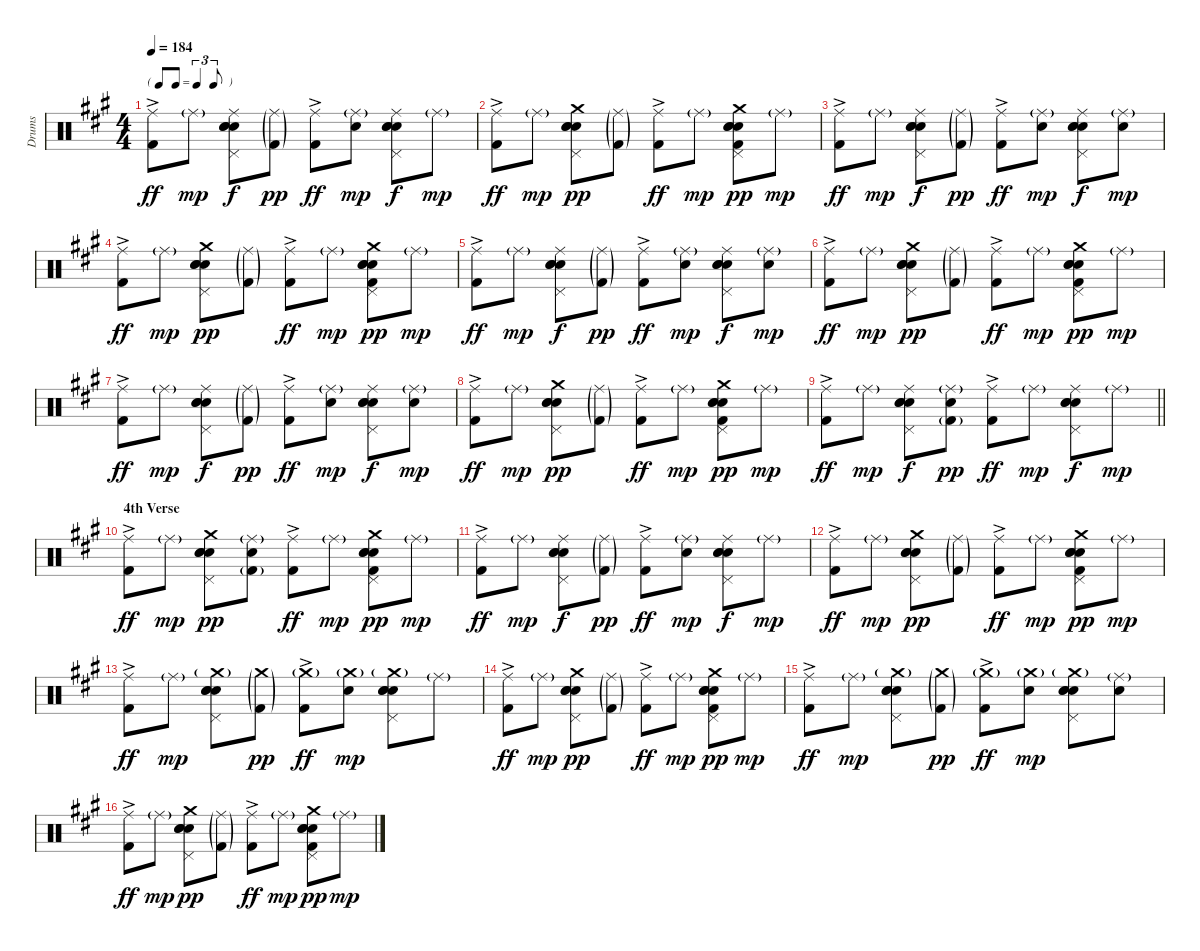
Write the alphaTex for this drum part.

\track ("Drums" "Drums") {instrument percussion}
\staff {score}
\articulation defaults
\ts (4 4)
\tf triplet8th
\tempo 184
\clef neutral
\ks a
("Ride (middle)" "Kick (hit) 2"{ac}).8{dy ff} "Ride (middle)"{g}.8{dy mp} ("Ride (middle)" "Pedal Hi-Hat (hit)" "Hand Clap (hit)" "Electric Snare (hit)" "Snare (hit) 2").8{dy f} ("Ride (middle)"{g} "Kick (hit) 2"{g}).8{dy pp} ("Ride (middle)" "Kick (hit) 2"{ac}).8{dy ff} ("Ride (middle)"{g} "Snare (hit) 2").8{dy mp} ("Ride (middle)" "Pedal Hi-Hat (hit)" "Hand Clap (hit)" "Electric Snare (hit)" "Snare (hit) 2").8{dy f} "Ride (middle)"{g}.8{dy mp} |
("Ride (middle)" "Kick (hit) 2"{ac}).8{dy ff} "Ride (middle)"{g}.8{dy mp} ("Hand Clap (hit)" "Pedal Hi-Hat (hit)" "Crash medium (hit)" "Electric Snare (hit)" "Snare (hit) 2").8{dy pp} ("Ride (middle)"{g} "Kick (hit) 2"{g}).8 ("Ride (middle)" "Kick (hit) 2"{ac}).8{dy ff} "Ride (middle)"{g}.8{dy mp} ("Hand Clap (hit)" "Pedal Hi-Hat (hit)" "Crash medium (hit)" "Electric Snare (hit)" "Snare (hit) 2" "Kick (hit) 2").8{dy pp} "Ride (middle)"{g}.8{dy mp} |
("Ride (middle)" "Kick (hit) 2"{ac}).8{dy ff} "Ride (middle)"{g}.8{dy mp} ("Ride (middle)" "Pedal Hi-Hat (hit)" "Hand Clap (hit)" "Electric Snare (hit)" "Snare (hit) 2").8{dy f} ("Ride (middle)"{g} "Kick (hit) 2"{g}).8{dy pp} ("Ride (middle)" "Kick (hit) 2"{ac}).8{dy ff} ("Ride (middle)"{g} "Snare (hit) 2").8{dy mp} ("Ride (middle)" "Pedal Hi-Hat (hit)" "Hand Clap (hit)" "Electric Snare (hit)" "Snare (hit) 2").8{dy f} ("Ride (middle)"{g} "Snare (hit) 2").8{dy mp} |
("Ride (middle)" "Kick (hit) 2"{ac}).8{dy ff} "Ride (middle)"{g}.8{dy mp} ("Hand Clap (hit)" "Pedal Hi-Hat (hit)" "Crash medium (hit)" "Electric Snare (hit)" "Snare (hit) 2").8{dy pp} ("Ride (middle)"{g} "Kick (hit) 2"{g}).8 ("Ride (middle)" "Kick (hit) 2"{ac}).8{dy ff} "Ride (middle)"{g}.8{dy mp} ("Hand Clap (hit)" "Pedal Hi-Hat (hit)" "Crash medium (hit)" "Electric Snare (hit)" "Snare (hit) 2" "Kick (hit) 2").8{dy pp} "Ride (middle)"{g}.8{dy mp} |
("Ride (middle)" "Kick (hit) 2"{ac}).8{dy ff} "Ride (middle)"{g}.8{dy mp} ("Ride (middle)" "Pedal Hi-Hat (hit)" "Hand Clap (hit)" "Electric Snare (hit)" "Snare (hit) 2").8{dy f} ("Ride (middle)"{g} "Kick (hit) 2"{g}).8{dy pp} ("Ride (middle)" "Kick (hit) 2"{ac}).8{dy ff} ("Ride (middle)"{g} "Snare (hit) 2").8{dy mp} ("Ride (middle)" "Pedal Hi-Hat (hit)" "Hand Clap (hit)" "Electric Snare (hit)" "Snare (hit) 2").8{dy f} ("Ride (middle)"{g} "Snare (hit) 2").8{dy mp} |
("Ride (middle)" "Kick (hit) 2"{ac}).8{dy ff} "Ride (middle)"{g}.8{dy mp} ("Hand Clap (hit)" "Pedal Hi-Hat (hit)" "Crash medium (hit)" "Electric Snare (hit)" "Snare (hit) 2").8{dy pp} ("Ride (middle)"{g} "Kick (hit) 2"{g}).8 ("Ride (middle)" "Kick (hit) 2"{ac}).8{dy ff} "Ride (middle)"{g}.8{dy mp} ("Hand Clap (hit)" "Pedal Hi-Hat (hit)" "Crash medium (hit)" "Electric Snare (hit)" "Snare (hit) 2" "Kick (hit) 2").8{dy pp} "Ride (middle)"{g}.8{dy mp} |
("Ride (middle)" "Kick (hit) 2"{ac}).8{dy ff} "Ride (middle)"{g}.8{dy mp} ("Ride (middle)" "Pedal Hi-Hat (hit)" "Hand Clap (hit)" "Electric Snare (hit)" "Snare (hit) 2").8{dy f} ("Ride (middle)"{g} "Kick (hit) 2"{g}).8{dy pp} ("Ride (middle)" "Kick (hit) 2"{ac}).8{dy ff} ("Ride (middle)"{g} "Snare (hit) 2").8{dy mp} ("Ride (middle)" "Pedal Hi-Hat (hit)" "Hand Clap (hit)" "Electric Snare (hit)" "Snare (hit) 2").8{dy f} ("Ride (middle)"{g} "Snare (hit) 2").8{dy mp} |
("Ride (middle)" "Kick (hit) 2"{ac}).8{dy ff} "Ride (middle)"{g}.8{dy mp} ("Hand Clap (hit)" "Pedal Hi-Hat (hit)" "Crash medium (hit)" "Electric Snare (hit)" "Snare (hit) 2").8{dy pp} ("Ride (middle)"{g} "Kick (hit) 2"{g}).8 ("Ride (middle)" "Kick (hit) 2"{ac}).8{dy ff} "Ride (middle)"{g}.8{dy mp} ("Hand Clap (hit)" "Pedal Hi-Hat (hit)" "Crash medium (hit)" "Electric Snare (hit)" "Snare (hit) 2" "Kick (hit) 2").8{dy pp} "Ride (middle)"{g}.8{dy mp} |
\barLineRight lightlight
("Ride (middle)" "Kick (hit) 2"{ac}).8{dy ff} "Ride (middle)"{g}.8{dy mp} ("Ride (middle)" "Pedal Hi-Hat (hit)" "Hand Clap (hit)" "Electric Snare (hit)" "Snare (hit) 2").8{dy f} ("Ride (middle)"{g} "Snare (hit) 2" "Kick (hit) 2"{g}).8{dy pp} ("Ride (middle)" "Kick (hit) 2"{ac}).8{dy ff} "Ride (middle)"{g}.8{dy mp} ("Ride (middle)" "Pedal Hi-Hat (hit)" "Hand Clap (hit)" "Electric Snare (hit)" "Snare (hit) 2").8{dy f} "Ride (middle)"{g}.8{dy mp} |
\section ("" "4th Verse")
("Ride (middle)" "Kick (hit) 2"{ac}).8{dy ff} "Ride (middle)"{g}.8{dy mp} ("Hand Clap (hit)" "Pedal Hi-Hat (hit)" "Crash medium (hit)" "Electric Snare (hit)" "Snare (hit) 2").8{dy pp} ("Ride (middle)"{g} "Snare (hit) 2" "Kick (hit) 2"{g}).8 ("Ride (middle)" "Kick (hit) 2"{ac}).8{dy ff} "Ride (middle)"{g}.8{dy mp} ("Hand Clap (hit)" "Pedal Hi-Hat (hit)" "Crash medium (hit)" "Electric Snare (hit)" "Snare (hit) 2" "Kick (hit) 2").8{dy pp} "Ride (middle)"{g}.8{dy mp} |
("Ride (middle)" "Kick (hit) 2"{ac}).8{dy ff} "Ride (middle)"{g}.8{dy mp} ("Ride (middle)" "Pedal Hi-Hat (hit)" "Hand Clap (hit)" "Electric Snare (hit)" "Snare (hit) 2").8{dy f} ("Ride (middle)"{g} "Kick (hit) 2"{g}).8{dy pp} ("Ride (middle)" "Kick (hit) 2"{ac}).8{dy ff} ("Ride (middle)"{g} "Snare (hit) 2").8{dy mp} ("Ride (middle)" "Pedal Hi-Hat (hit)" "Hand Clap (hit)" "Electric Snare (hit)" "Snare (hit) 2").8{dy f} "Ride (middle)"{g}.8{dy mp} |
("Ride (middle)" "Kick (hit) 2"{ac}).8{dy ff} "Ride (middle)"{g}.8{dy mp} ("Hand Clap (hit)" "Pedal Hi-Hat (hit)" "Crash medium (hit)" "Electric Snare (hit)" "Snare (hit) 2").8{dy pp} ("Ride (middle)"{g} "Kick (hit) 2"{g}).8 ("Ride (middle)" "Kick (hit) 2"{ac}).8{dy ff} "Ride (middle)"{g}.8{dy mp} ("Hand Clap (hit)" "Pedal Hi-Hat (hit)" "Crash medium (hit)" "Electric Snare (hit)" "Snare (hit) 2" "Kick (hit) 2").8{dy pp} "Ride (middle)"{g}.8{dy mp} |
("Ride (middle)" "Kick (hit) 2"{ac}).8{dy ff} "Ride (middle)"{g}.8{dy mp} ("Crash medium (hit)"{g} "Pedal Hi-Hat (hit)" "Hand Clap (hit)" "Electric Snare (hit)" "Snare (hit) 2").8 ("Crash medium (hit)"{g} "Kick (hit) 2"{g}).8{dy pp} ("Crash medium (hit)"{g} "Kick (hit) 2"{ac}).8{dy ff} ("Crash medium (hit)"{g} "Snare (hit) 2").8{dy mp} ("Crash medium (hit)"{g} "Pedal Hi-Hat (hit)" "Hand Clap (hit)" "Electric Snare (hit)" "Snare (hit) 2").8 "Ride (middle)"{g}.8 |
("Ride (middle)" "Kick (hit) 2"{ac}).8{dy ff} "Ride (middle)"{g}.8{dy mp} ("Hand Clap (hit)" "Pedal Hi-Hat (hit)" "Crash medium (hit)" "Electric Snare (hit)" "Snare (hit) 2").8{dy pp} ("Ride (middle)"{g} "Kick (hit) 2"{g}).8 ("Ride (middle)" "Kick (hit) 2"{ac}).8{dy ff} "Ride (middle)"{g}.8{dy mp} ("Hand Clap (hit)" "Pedal Hi-Hat (hit)" "Crash medium (hit)" "Electric Snare (hit)" "Snare (hit) 2" "Kick (hit) 2").8{dy pp} "Ride (middle)"{g}.8{dy mp} |
("Ride (middle)" "Kick (hit) 2"{ac}).8{dy ff} "Ride (middle)"{g}.8{dy mp} ("Crash medium (hit)"{g} "Pedal Hi-Hat (hit)" "Hand Clap (hit)" "Electric Snare (hit)" "Snare (hit) 2").8 ("Crash medium (hit)"{g} "Kick (hit) 2"{g}).8{dy pp} ("Crash medium (hit)"{g} "Kick (hit) 2"{ac}).8{dy ff} ("Crash medium (hit)"{g} "Snare (hit) 2").8{dy mp} ("Crash medium (hit)"{g} "Pedal Hi-Hat (hit)" "Hand Clap (hit)" "Electric Snare (hit)" "Snare (hit) 2").8 ("Ride (middle)"{g} "Snare (hit) 2").8 |
("Ride (middle)" "Kick (hit) 2"{ac}).8{dy ff} "Ride (middle)"{g}.8{dy mp} ("Hand Clap (hit)" "Pedal Hi-Hat (hit)" "Crash medium (hit)" "Electric Snare (hit)" "Snare (hit) 2").8{dy pp} ("Ride (middle)"{g} "Kick (hit) 2"{g}).8 ("Ride (middle)" "Kick (hit) 2"{ac}).8{dy ff} "Ride (middle)"{g}.8{dy mp} ("Hand Clap (hit)" "Pedal Hi-Hat (hit)" "Crash medium (hit)" "Electric Snare (hit)" "Snare (hit) 2" "Kick (hit) 2").8{dy pp} "Ride (middle)"{g}.8{dy mp}
